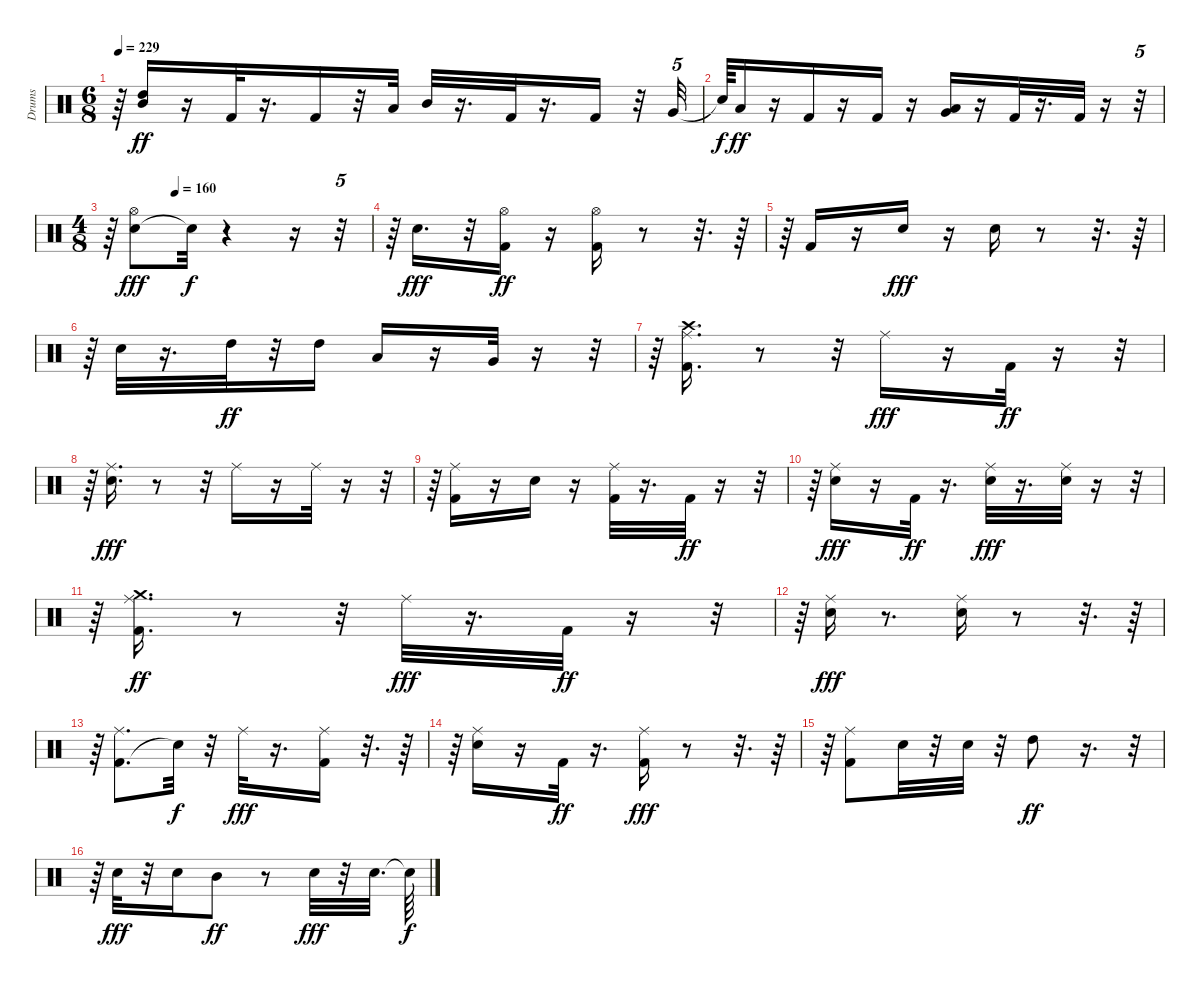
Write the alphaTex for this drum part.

\track ("Drums" "Drums") {instrument percussion}
\staff {score}
\articulation defaults
\ts (6 8)
\tempo 229
\clef neutral
\ks c
r.64{dy f} ("Mid Tom (hit)" "High Tom (hit)").16{dy ff} r.16 "Kick (hit) 2".32 r.16{d} "Kick (hit) 2".16 r.32 "Low Tom (hit)".32 "Mid Tom (hit)".32 r.16{d} "Kick (hit) 2".32 r.16{d} "Kick (hit) 2".16 r.32 "Very Low Tom (hit)".32{tu (5 4)} |
"Snare (hit)"{t}.64{dy f} "Low Tom (hit)".16{dy ff} r.16 "Kick (hit) 2".16 r.16 "Kick (hit) 2".16 r.16 ("Low Floor Tom (hit)" "Very Low Tom (hit)").16 r.16 "Kick (hit) 2".32 r.16{d} "Kick (hit) 2".32 r.16 r.32{tu (5 4)} |
\ts (4 8)
\tempo (160 0.25)
r.64 ("Snare (hit) 2" "Hi-Hat (open)").8{dy fff} "Snare (hit)"{t}.32{dy f} r.4 r.16 r.32{tu (5 4)} |
r.64 "Snare (hit) 2".16{d dy fff} r.32 ("Kick (hit) 2" "Hi-Hat (open)").16{dy ff} r.16 ("Kick (hit) 2" "Hi-Hat (open)").16 r.8 r.32{d} r.64 |
r.64 "Kick (hit) 2".16 r.16 "Snare (hit) 2".16{dy fff} r.16 "Snare (hit) 2".16 r.8 r.32{d} r.64 |
r.64 "Snare (hit) 2".32 r.16{d} "High Tom (hit)".32{dy ff} r.32 "High Tom (hit)".16 "Low Tom (hit)".16 r.16 "Very Low Tom (hit)".32 r.16 r.32{tu (5 4)} |
r.64 ("Kick (hit) 2" "Ride (middle)" "Crash high (hit)").16{d} r.8 r.32 "Ride (middle)".16{dy fff} r.16 "Kick (hit) 2".32{dy ff} r.16 r.32{tu (5 4)} |
r.64 ("Snare (hit) 2" "Ride (middle)").16{d dy fff} r.8 r.32 "Ride (middle)".16 r.16 "Ride (middle)".32 r.16 r.32{tu (5 4)} |
r.64 ("Kick (hit) 2" "Ride (middle)").16 r.16 "Snare (hit) 2".16 r.16 ("Kick (hit) 2" "Ride (middle)").32 r.16{d} "Kick (hit) 2".32{dy ff} r.16 r.32{tu (5 4)} |
r.64 ("Snare (hit) 2" "Ride (middle)").16{dy fff} r.16 "Kick (hit) 2".32{dy ff} r.16{d} ("Snare (hit) 2" "Ride (middle)").32{dy fff} r.16{d} ("Snare (hit) 2" "Ride (middle)").32 r.16 r.32{tu (5 4)} |
r.64 ("Kick (hit) 2" "Ride (middle)" "Crash medium (hit)").16{d dy ff} r.8 r.32 "Ride (middle)".32{dy fff} r.16{d} "Kick (hit) 2".32{dy ff} r.16 r.32{tu (5 4)} |
r.64 ("Snare (hit) 2" "Ride (middle)").16{dy fff} r.8{d} ("Snare (hit) 2" "Ride (middle)").16 r.8 r.32{d} r.64 |
r.64 ("Kick (hit) 2" "Ride (middle)").8{d} "Snare (hit)"{t}.32{dy f} r.32 "Ride (middle)".32{dy fff} r.16{d} ("Kick (hit) 2" "Ride (middle)").16 r.32{d} r.64 |
r.64 ("Snare (hit) 2" "Ride (middle)").16 r.16 "Kick (hit) 2".32{dy ff} r.16{d} ("Kick (hit) 2" "Ride (middle)").16{dy fff} r.8 r.32{d} r.64 |
r.64 ("Kick (hit) 2" "Ride (middle)").8 "Snare (hit) 2".32 r.32 "Snare (hit) 2".32 r.32 "High Tom (hit)".8{dy ff} r.16{d} r.32{tu (5 4)} |
r.64 "Snare (hit) 2".32{dy fff} r.32 "Snare (hit) 2".16 "Mid Tom (hit)".8{dy ff} r.8 "Snare (hit) 2".32{dy fff} r.32 "Snare (hit) 2".32{d} "Snare (hit)"{t}.64{dy f}
